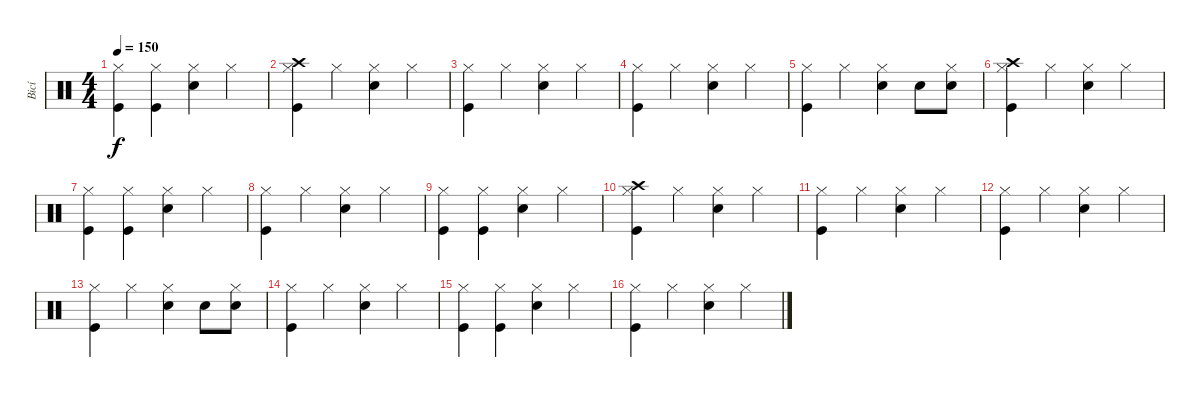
\track ("Bicí" "Bicí") {instrument percussion}
\staff {score}
\articulation defaults
\ts (4 4)
\tempo 150
\clef neutral
\ks c
("Kick (hit)" "Hi-Hat (closed)").4{dy f} ("Kick (hit)" "Hi-Hat (closed)").4 ("Snare (hit) 2" "Hi-Hat (closed)").4 "Hi-Hat (closed)".4 |
("Kick (hit)" "Crash high (hit)" "Hi-Hat (closed)").4 "Hi-Hat (closed)".4 ("Snare (hit) 2" "Hi-Hat (closed)").4 "Hi-Hat (closed)".4 |
("Kick (hit)" "Hi-Hat (closed)").4 "Hi-Hat (closed)".4 ("Snare (hit) 2" "Hi-Hat (closed)").4 "Hi-Hat (closed)".4 |
("Kick (hit)" "Hi-Hat (closed)").4 "Hi-Hat (closed)".4 ("Snare (hit) 2" "Hi-Hat (closed)").4 "Hi-Hat (closed)".4 |
("Kick (hit)" "Hi-Hat (closed)").4 "Hi-Hat (closed)".4 ("Snare (hit) 2" "Hi-Hat (closed)").4 "Snare (hit) 2".8 ("Snare (hit) 2" "Hi-Hat (closed)").8 |
("Kick (hit)" "Crash high (hit)" "Hi-Hat (closed)").4 "Hi-Hat (closed)".4 ("Snare (hit) 2" "Hi-Hat (closed)").4 "Hi-Hat (closed)".4 |
("Kick (hit)" "Hi-Hat (closed)").4 ("Kick (hit)" "Hi-Hat (closed)").4 ("Snare (hit) 2" "Hi-Hat (closed)").4 "Hi-Hat (closed)".4 |
("Kick (hit)" "Hi-Hat (closed)").4 "Hi-Hat (closed)".4 ("Snare (hit) 2" "Hi-Hat (closed)").4 "Hi-Hat (closed)".4 |
("Kick (hit)" "Hi-Hat (closed)").4 ("Kick (hit)" "Hi-Hat (closed)").4 ("Snare (hit) 2" "Hi-Hat (closed)").4 "Hi-Hat (closed)".4 |
("Kick (hit)" "Crash high (hit)" "Hi-Hat (closed)").4 "Hi-Hat (closed)".4 ("Snare (hit) 2" "Hi-Hat (closed)").4 "Hi-Hat (closed)".4 |
("Kick (hit)" "Hi-Hat (closed)").4 "Hi-Hat (closed)".4 ("Snare (hit) 2" "Hi-Hat (closed)").4 "Hi-Hat (closed)".4 |
("Kick (hit)" "Hi-Hat (closed)").4 "Hi-Hat (closed)".4 ("Snare (hit) 2" "Hi-Hat (closed)").4 "Hi-Hat (closed)".4 |
("Kick (hit)" "Hi-Hat (closed)").4 "Hi-Hat (closed)".4 ("Snare (hit) 2" "Hi-Hat (closed)").4 "Snare (hit) 2".8 ("Snare (hit) 2" "Hi-Hat (closed)").8 |
("Kick (hit)" "Hi-Hat (closed)").4 "Hi-Hat (closed)".4 ("Snare (hit) 2" "Hi-Hat (closed)").4 "Hi-Hat (closed)".4 |
("Kick (hit)" "Hi-Hat (closed)").4 ("Kick (hit)" "Hi-Hat (closed)").4 ("Snare (hit) 2" "Hi-Hat (closed)").4 "Hi-Hat (closed)".4 |
("Kick (hit)" "Hi-Hat (closed)").4 "Hi-Hat (closed)".4 ("Snare (hit) 2" "Hi-Hat (closed)").4 "Hi-Hat (closed)".4
